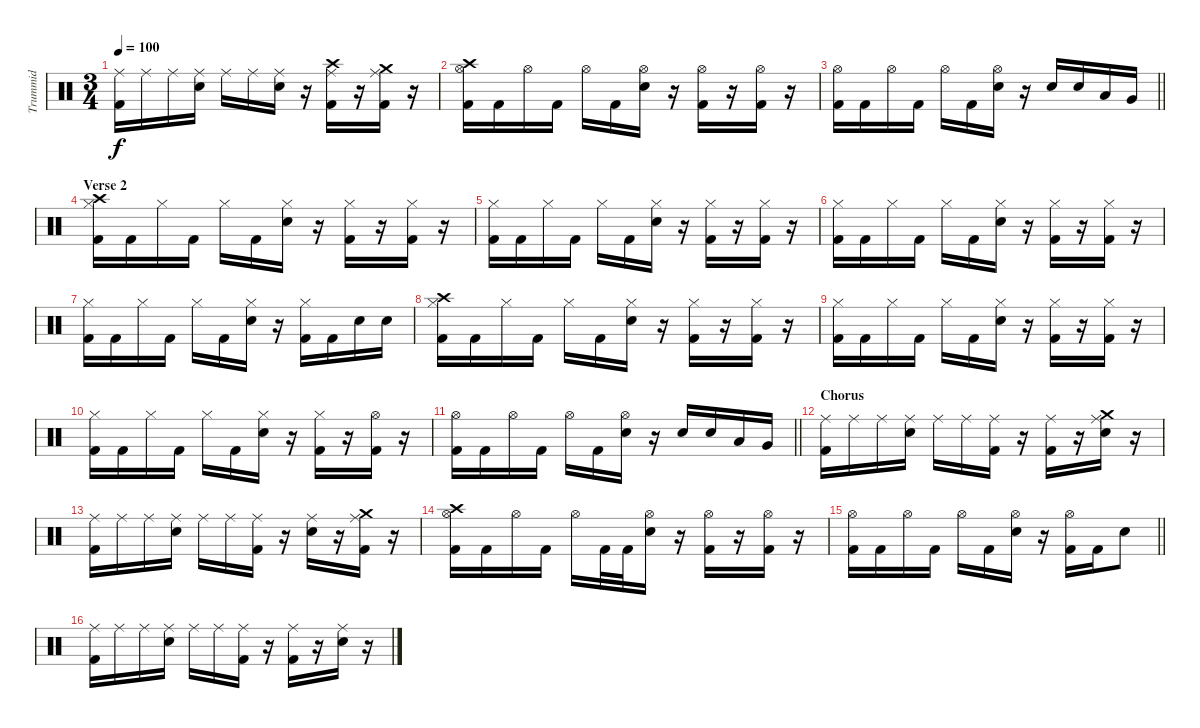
\track ("Trummid" "Trummid") {instrument percussion}
\staff {score}
\articulation defaults
\ts (3 4)
\tempo 100
\clef neutral
\ks c
("Ride (middle)" "Kick (hit) 2").16{dy f} "Ride (middle)".16 "Ride (middle)".16 ("Ride (middle)" "Snare (hit) 2").16 "Ride (middle)".16 "Ride (middle)".16 ("Ride (middle)" "Snare (hit) 2").16 r.16 ("Crash high (hit)" "Ride (middle)" "Kick (hit) 2").16 r.16 ("Crash medium (hit)" "Ride (middle)" "Kick (hit) 2").16 r.16 |
("Crash high (hit)" "Hi-Hat (open)" "Kick (hit) 2").16 "Kick (hit) 2".16 "Hi-Hat (open)".16 "Kick (hit) 2".16 "Hi-Hat (open)".16 "Kick (hit) 2".16 ("Hi-Hat (open)" "Snare (hit) 2").16 r.16 ("Hi-Hat (open)" "Kick (hit) 2").16 r.16 ("Hi-Hat (open)" "Kick (hit) 2").16 r.16 |
\barLineRight lightlight
("Hi-Hat (open)" "Kick (hit) 2").16 "Kick (hit) 2".16 "Hi-Hat (open)".16 "Kick (hit) 2".16 "Hi-Hat (open)".16 "Kick (hit) 2".16 ("Hi-Hat (open)" "Snare (hit) 2").16 r.16 "Snare (hit) 2".16 "Snare (hit) 2".16 "Low Tom (hit)".16 "Very Low Tom (hit)".16 |
\section ("" "Verse 2")
("Crash high (hit)" "Hi-Hat (closed)" "Kick (hit) 2").16 "Kick (hit) 2".16 "Hi-Hat (closed)".16 "Kick (hit) 2".16 "Hi-Hat (closed)".16 "Kick (hit) 2".16 ("Hi-Hat (closed)" "Snare (hit) 2").16 r.16 ("Hi-Hat (closed)" "Kick (hit) 2").16 r.16 ("Hi-Hat (closed)" "Kick (hit) 2").16 r.16 |
("Hi-Hat (closed)" "Kick (hit) 2").16 "Kick (hit) 2".16 "Hi-Hat (closed)".16 "Kick (hit) 2".16 "Hi-Hat (closed)".16 "Kick (hit) 2".16 ("Hi-Hat (closed)" "Snare (hit) 2").16 r.16 ("Hi-Hat (closed)" "Kick (hit) 2").16 r.16 ("Hi-Hat (closed)" "Kick (hit) 2").16 r.16 |
("Hi-Hat (closed)" "Kick (hit) 2").16 "Kick (hit) 2".16 "Hi-Hat (closed)".16 "Kick (hit) 2".16 "Hi-Hat (closed)".16 "Kick (hit) 2".16 ("Hi-Hat (closed)" "Snare (hit) 2").16 r.16 ("Hi-Hat (closed)" "Kick (hit) 2").16 r.16 ("Hi-Hat (closed)" "Kick (hit) 2").16 r.16 |
("Hi-Hat (closed)" "Kick (hit) 2").16 "Kick (hit) 2".16 "Hi-Hat (closed)".16 "Kick (hit) 2".16 "Hi-Hat (closed)".16 "Kick (hit) 2".16 ("Hi-Hat (closed)" "Snare (hit) 2").16 r.16 ("Hi-Hat (closed)" "Kick (hit) 2").16 "Kick (hit) 2".16 "Snare (hit) 2".16 "Snare (hit) 2".16 |
("Crash high (hit)" "Hi-Hat (closed)" "Kick (hit) 2").16 "Kick (hit) 2".16 "Hi-Hat (closed)".16 "Kick (hit) 2".16 "Hi-Hat (closed)".16 "Kick (hit) 2".16 ("Hi-Hat (closed)" "Snare (hit) 2").16 r.16 ("Hi-Hat (closed)" "Kick (hit) 2").16 r.16 ("Hi-Hat (closed)" "Kick (hit) 2").16 r.16 |
("Hi-Hat (closed)" "Kick (hit) 2").16 "Kick (hit) 2".16 "Hi-Hat (closed)".16 "Kick (hit) 2".16 "Hi-Hat (closed)".16 "Kick (hit) 2".16 ("Hi-Hat (closed)" "Snare (hit) 2").16 r.16 ("Hi-Hat (closed)" "Kick (hit) 2").16 r.16 ("Hi-Hat (closed)" "Kick (hit) 2").16 r.16 |
("Hi-Hat (closed)" "Kick (hit) 2").16 "Kick (hit) 2".16 "Hi-Hat (closed)".16 "Kick (hit) 2".16 "Hi-Hat (closed)".16 "Kick (hit) 2".16 ("Hi-Hat (closed)" "Snare (hit) 2").16 r.16 ("Hi-Hat (closed)" "Kick (hit) 2").16 r.16 ("Hi-Hat (open)" "Kick (hit) 2").16 r.16 |
\barLineRight lightlight
("Hi-Hat (open)" "Kick (hit) 2").16 "Kick (hit) 2".16 "Hi-Hat (open)".16 "Kick (hit) 2".16 "Hi-Hat (open)".16 "Kick (hit) 2".16 ("Hi-Hat (open)" "Snare (hit) 2").16 r.16 "Snare (hit) 2".16 "Snare (hit) 2".16 "Low Tom (hit)".16 "Very Low Tom (hit)".16 |
\section ("" "Chorus")
("Ride (middle)" "Kick (hit) 2").16 "Ride (middle)".16 "Ride (middle)".16 ("Ride (middle)" "Snare (hit) 2").16 "Ride (middle)".16 "Ride (middle)".16 ("Ride (middle)" "Kick (hit) 2").16 r.16 ("Ride (middle)" "Kick (hit) 2").16 r.16 ("Crash medium (hit)" "Ride (middle)" "Snare (hit) 2").16 r.16 |
("Ride (middle)" "Kick (hit) 2").16 "Ride (middle)".16 "Ride (middle)".16 ("Ride (middle)" "Snare (hit) 2").16 "Ride (middle)".16 "Ride (middle)".16 ("Ride (middle)" "Kick (hit) 2").16 r.16 ("Ride (middle)" "Snare (hit) 2").16 r.16 ("Crash medium (hit)" "Ride (middle)" "Kick (hit) 2").16 r.16 |
("Crash high (hit)" "Hi-Hat (open)" "Kick (hit) 2").16 "Kick (hit) 2".16 "Hi-Hat (open)".16 "Kick (hit) 2".16 "Hi-Hat (open)".16 "Kick (hit) 2".32 "Kick (hit) 2".32 ("Hi-Hat (open)" "Snare (hit) 2").16 r.16 ("Hi-Hat (open)" "Kick (hit) 2").16 r.16 ("Hi-Hat (open)" "Kick (hit) 2").16 r.16 |
\barLineRight lightlight
("Hi-Hat (open)" "Kick (hit) 2").16 "Kick (hit) 2".16 "Hi-Hat (open)".16 "Kick (hit) 2".16 "Hi-Hat (open)".16 "Kick (hit) 2".16 ("Hi-Hat (open)" "Snare (hit) 2").16 r.16 ("Hi-Hat (open)" "Kick (hit) 2").16 "Kick (hit) 2".16 "Snare (hit) 2".8 |
("Ride (middle)" "Kick (hit) 2").16 "Ride (middle)".16 "Ride (middle)".16 ("Ride (middle)" "Snare (hit) 2").16 "Ride (middle)".16 "Ride (middle)".16 ("Ride (middle)" "Kick (hit) 2").16 r.16 ("Ride (middle)" "Kick (hit) 2").16 r.16 ("Ride (middle)" "Snare (hit) 2").16 r.16
